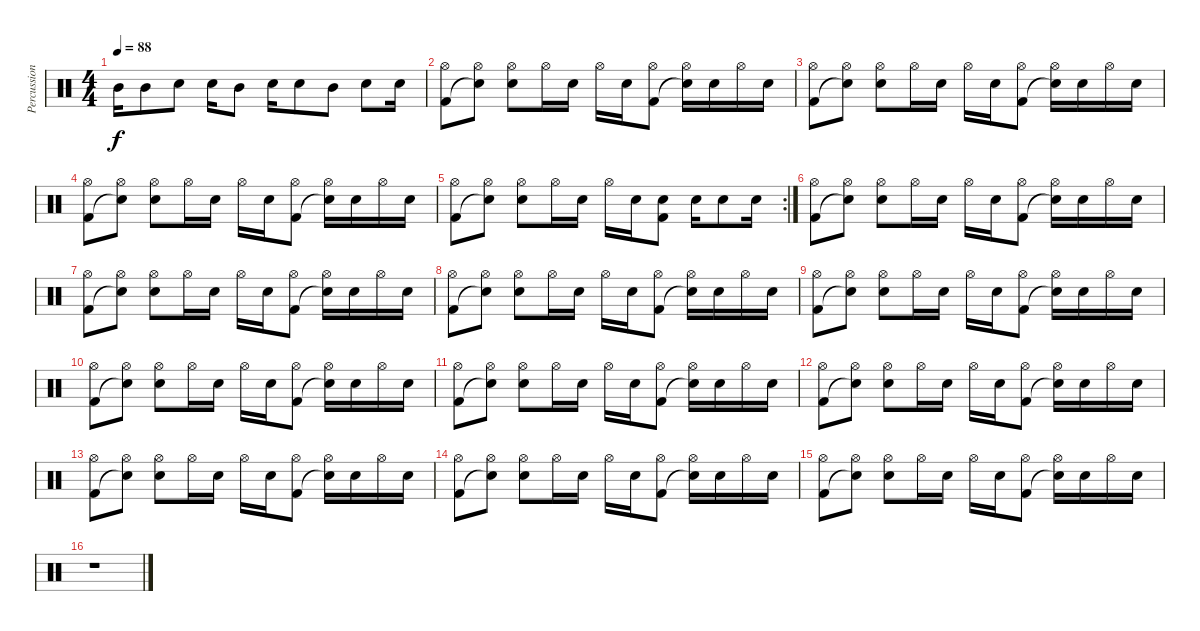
\track ("Percussion" "Percussion") {instrument percussion}
\staff {score}
\articulation defaults
\ts (4 4)
\tempo 88
\clef neutral
\ks c "Mid Tom (hit)".16{dy f} "Mid Tom (hit)".8 "Snare (hit) 2".8 "Snare (hit) 2".16 "Mid Tom (hit)".8 "Snare (hit) 2".16 "Snare (hit) 2".8 "Mid Tom (hit)".8 "Snare (hit) 2".8 "Snare (hit) 2".16
|
("Hi-Hat (open)" "Kick (hit) 2").8 ("Hi-Hat (open)" "Snare (hit)"{t}).8 ("Hi-Hat (open)" "Snare (hit) 2").8 "Hi-Hat (open)".16 "Snare (hit) 2".16 "Hi-Hat (open)".16 "Snare (hit) 2".16 ("Hi-Hat (open)" "Kick (hit) 2").8 ("Hi-Hat (open)" "Snare (hit)"{t}).16 "Snare (hit) 2".16 "Hi-Hat (open)".16 "Snare (hit) 2".16 |
("Hi-Hat (open)" "Kick (hit) 2").8 ("Hi-Hat (open)" "Snare (hit)"{t}).8 ("Hi-Hat (open)" "Snare (hit) 2").8 "Hi-Hat (open)".16 "Snare (hit) 2".16 "Hi-Hat (open)".16 "Snare (hit) 2".16 ("Hi-Hat (open)" "Kick (hit) 2").8 ("Hi-Hat (open)" "Snare (hit)"{t}).16 "Snare (hit) 2".16 "Hi-Hat (open)".16 "Snare (hit) 2".16 |
("Hi-Hat (open)" "Kick (hit) 2").8 ("Hi-Hat (open)" "Snare (hit)"{t}).8 ("Hi-Hat (open)" "Snare (hit) 2").8 "Hi-Hat (open)".16 "Snare (hit) 2".16 "Hi-Hat (open)".16 "Snare (hit) 2".16 ("Hi-Hat (open)" "Kick (hit) 2").8 ("Hi-Hat (open)" "Snare (hit)"{t}).16 "Snare (hit) 2".16 "Hi-Hat (open)".16 "Snare (hit) 2".16 |
\rc 2
("Hi-Hat (open)" "Kick (hit) 2").8 ("Hi-Hat (open)" "Snare (hit)"{t}).8 ("Hi-Hat (open)" "Snare (hit) 2").8 "Hi-Hat (open)".16 "Snare (hit) 2".16 "Hi-Hat (open)".16 "Snare (hit) 2".16 ("Snare (hit) 2" "Kick (hit) 2").8 "Snare (hit) 2".16 "Snare (hit) 2".8 "Snare (hit) 2".16 |
("Hi-Hat (open)" "Kick (hit) 2").8 ("Hi-Hat (open)" "Snare (hit)"{t}).8 ("Hi-Hat (open)" "Snare (hit) 2").8 "Hi-Hat (open)".16 "Snare (hit) 2".16 "Hi-Hat (open)".16 "Snare (hit) 2".16 ("Hi-Hat (open)" "Kick (hit) 2").8 ("Hi-Hat (open)" "Snare (hit)"{t}).16 "Snare (hit) 2".16 "Hi-Hat (open)".16 "Snare (hit) 2".16 |
("Hi-Hat (open)" "Kick (hit) 2").8 ("Hi-Hat (open)" "Snare (hit)"{t}).8 ("Hi-Hat (open)" "Snare (hit) 2").8 "Hi-Hat (open)".16 "Snare (hit) 2".16 "Hi-Hat (open)".16 "Snare (hit) 2".16 ("Hi-Hat (open)" "Kick (hit) 2").8 ("Hi-Hat (open)" "Snare (hit)"{t}).16 "Snare (hit) 2".16 "Hi-Hat (open)".16 "Snare (hit) 2".16 |
("Hi-Hat (open)" "Kick (hit) 2").8 ("Hi-Hat (open)" "Snare (hit)"{t}).8 ("Hi-Hat (open)" "Snare (hit) 2").8 "Hi-Hat (open)".16 "Snare (hit) 2".16 "Hi-Hat (open)".16 "Snare (hit) 2".16 ("Hi-Hat (open)" "Kick (hit) 2").8 ("Hi-Hat (open)" "Snare (hit)"{t}).16 "Snare (hit) 2".16 "Hi-Hat (open)".16 "Snare (hit) 2".16 |
("Hi-Hat (open)" "Kick (hit) 2").8 ("Hi-Hat (open)" "Snare (hit)"{t}).8 ("Hi-Hat (open)" "Snare (hit) 2").8 "Hi-Hat (open)".16 "Snare (hit) 2".16 "Hi-Hat (open)".16 "Snare (hit) 2".16 ("Hi-Hat (open)" "Kick (hit) 2").8 ("Hi-Hat (open)" "Snare (hit)"{t}).16 "Snare (hit) 2".16 "Hi-Hat (open)".16 "Snare (hit) 2".16 |
("Hi-Hat (open)" "Kick (hit) 2").8 ("Hi-Hat (open)" "Snare (hit)"{t}).8 ("Hi-Hat (open)" "Snare (hit) 2").8 "Hi-Hat (open)".16 "Snare (hit) 2".16 "Hi-Hat (open)".16 "Snare (hit) 2".16 ("Hi-Hat (open)" "Kick (hit) 2").8 ("Hi-Hat (open)" "Snare (hit)"{t}).16 "Snare (hit) 2".16 "Hi-Hat (open)".16 "Snare (hit) 2".16 |
("Hi-Hat (open)" "Kick (hit) 2").8 ("Hi-Hat (open)" "Snare (hit)"{t}).8 ("Hi-Hat (open)" "Snare (hit) 2").8 "Hi-Hat (open)".16 "Snare (hit) 2".16 "Hi-Hat (open)".16 "Snare (hit) 2".16 ("Hi-Hat (open)" "Kick (hit) 2").8 ("Hi-Hat (open)" "Snare (hit)"{t}).16 "Snare (hit) 2".16 "Hi-Hat (open)".16 "Snare (hit) 2".16 |
("Hi-Hat (open)" "Kick (hit) 2").8 ("Hi-Hat (open)" "Snare (hit)"{t}).8 ("Hi-Hat (open)" "Snare (hit) 2").8 "Hi-Hat (open)".16 "Snare (hit) 2".16 "Hi-Hat (open)".16 "Snare (hit) 2".16 ("Hi-Hat (open)" "Kick (hit) 2").8 ("Hi-Hat (open)" "Snare (hit)"{t}).16 "Snare (hit) 2".16 "Hi-Hat (open)".16 "Snare (hit) 2".16 |
("Hi-Hat (open)" "Kick (hit) 2").8 ("Hi-Hat (open)" "Snare (hit)"{t}).8 ("Hi-Hat (open)" "Snare (hit) 2").8 "Hi-Hat (open)".16 "Snare (hit) 2".16 "Hi-Hat (open)".16 "Snare (hit) 2".16 ("Hi-Hat (open)" "Kick (hit) 2").8 ("Hi-Hat (open)" "Snare (hit)"{t}).16 "Snare (hit) 2".16 "Hi-Hat (open)".16 "Snare (hit) 2".16 |
("Hi-Hat (open)" "Kick (hit) 2").8 ("Hi-Hat (open)" "Snare (hit)"{t}).8 ("Hi-Hat (open)" "Snare (hit) 2").8 "Hi-Hat (open)".16 "Snare (hit) 2".16 "Hi-Hat (open)".16 "Snare (hit) 2".16 ("Hi-Hat (open)" "Kick (hit) 2").8 ("Hi-Hat (open)" "Snare (hit)"{t}).16 "Snare (hit) 2".16 "Hi-Hat (open)".16 "Snare (hit) 2".16 |
("Hi-Hat (open)" "Kick (hit) 2").8 ("Hi-Hat (open)" "Snare (hit)"{t}).8 ("Hi-Hat (open)" "Snare (hit) 2").8 "Hi-Hat (open)".16 "Snare (hit) 2".16 "Hi-Hat (open)".16 "Snare (hit) 2".16 ("Hi-Hat (open)" "Kick (hit) 2").8 ("Hi-Hat (open)" "Snare (hit)"{t}).16 "Snare (hit) 2".16 "Hi-Hat (open)".16 "Snare (hit) 2".16 |
r.1
